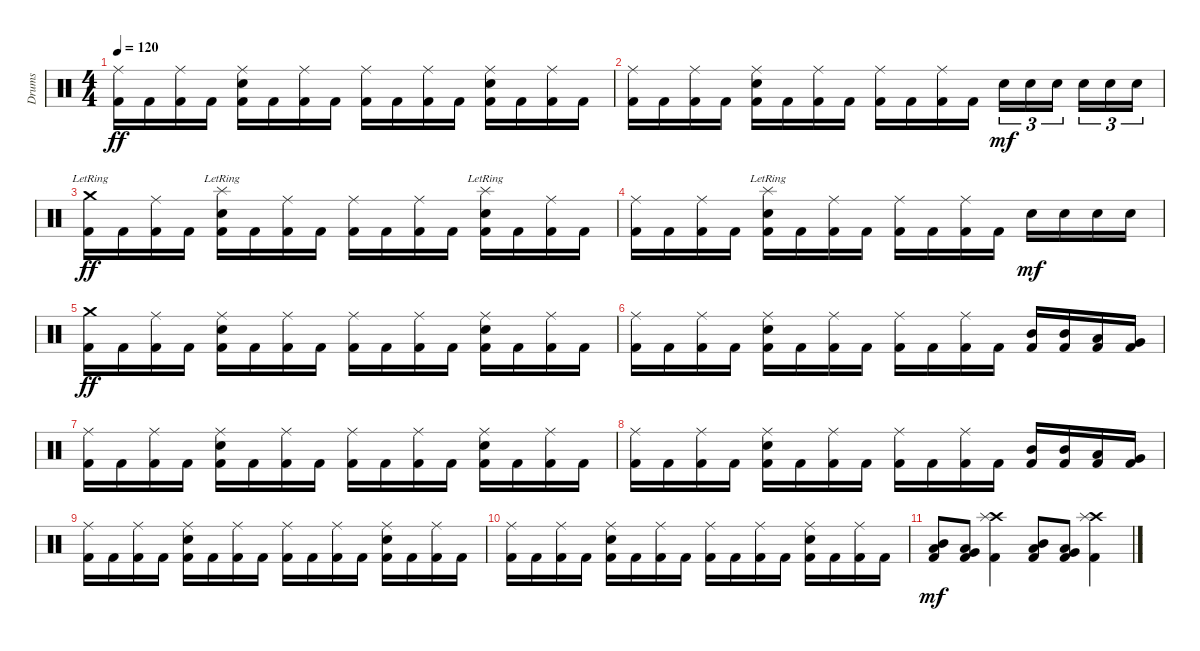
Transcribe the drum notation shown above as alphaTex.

\track ("Drums" "Drums") {instrument percussion}
\staff {score}
\articulation defaults
\ts (4 4)
\tempo 120
\clef neutral
\ks c
("Ride (middle)" "Kick (hit) 2").16{dy ff} "Kick (hit) 2".16 ("Ride (middle)" "Kick (hit) 2").16 "Kick (hit) 2".16 ("Ride (middle)" "Electric Snare (hit)" "Kick (hit) 2").16 "Kick (hit) 2".16 ("Ride (middle)" "Kick (hit) 2").16 "Kick (hit) 2".16 ("Ride (middle)" "Kick (hit) 2").16 "Kick (hit) 2".16 ("Ride (middle)" "Kick (hit) 2").16 "Kick (hit) 2".16 ("Ride (middle)" "Electric Snare (hit)" "Kick (hit) 2").16 "Kick (hit) 2".16 ("Ride (middle)" "Kick (hit) 2").16 "Kick (hit) 2".16 |
("Ride (middle)" "Kick (hit) 2").16 "Kick (hit) 2".16 ("Ride (middle)" "Kick (hit) 2").16 "Kick (hit) 2".16 ("Ride (middle)" "Electric Snare (hit)" "Kick (hit) 2").16 "Kick (hit) 2".16 ("Ride (middle)" "Kick (hit) 2").16 "Kick (hit) 2".16 ("Ride (middle)" "Kick (hit) 2").16 "Kick (hit) 2".16 ("Ride (middle)" "Kick (hit) 2").16 "Kick (hit) 2".16 "Electric Snare (hit)".16{tu (3 2) dy mf} "Electric Snare (hit)".16{tu (3 2)} "Electric Snare (hit)".16{tu (3 2)} "Electric Snare (hit)".16{tu (3 2)} "Electric Snare (hit)".16{tu (3 2)} "Electric Snare (hit)".16{tu (3 2)} |
("Crash medium (hit)"{lr} "Kick (hit) 2").16{dy ff} "Kick (hit) 2".16 ("Ride (middle)" "Kick (hit) 2").16 "Kick (hit) 2".16 ("Splash (hit)"{lr} "Electric Snare (hit)" "Kick (hit) 2").16 "Kick (hit) 2".16 ("Ride (middle)" "Kick (hit) 2").16 "Kick (hit) 2".16 ("Ride (middle)" "Kick (hit) 2").16 "Kick (hit) 2".16 ("Ride (middle)" "Kick (hit) 2").16 "Kick (hit) 2".16 ("Splash (hit)"{lr} "Electric Snare (hit)" "Kick (hit) 2").16 "Kick (hit) 2".16 ("Ride (middle)" "Kick (hit) 2").16 "Kick (hit) 2".16 |
("Ride (middle)" "Kick (hit) 2").16 "Kick (hit) 2".16 ("Ride (middle)" "Kick (hit) 2").16 "Kick (hit) 2".16 ("Splash (hit)"{lr} "Electric Snare (hit)" "Kick (hit) 2").16 "Kick (hit) 2".16 ("Ride (middle)" "Kick (hit) 2").16 "Kick (hit) 2".16 ("Ride (middle)" "Kick (hit) 2").16 "Kick (hit) 2".16 ("Ride (middle)" "Kick (hit) 2").16 "Kick (hit) 2".16 "Electric Snare (hit)".16{dy mf} "Electric Snare (hit)".16 "Electric Snare (hit)".16 "Electric Snare (hit)".16 |
("Crash medium (hit)" "Kick (hit) 2").16{dy ff} "Kick (hit) 2".16 ("Ride (middle)" "Kick (hit) 2").16 "Kick (hit) 2".16 ("Ride (middle)" "Electric Snare (hit)" "Kick (hit) 2").16 "Kick (hit) 2".16 ("Ride (middle)" "Kick (hit) 2").16 "Kick (hit) 2".16 ("Ride (middle)" "Kick (hit) 2").16 "Kick (hit) 2".16 ("Ride (middle)" "Kick (hit) 2").16 "Kick (hit) 2".16 ("Ride (middle)" "Electric Snare (hit)" "Kick (hit) 2").16 "Kick (hit) 2".16 ("Ride (middle)" "Kick (hit) 2").16 "Kick (hit) 2".16 |
("Ride (middle)" "Kick (hit) 2").16 "Kick (hit) 2".16 ("Ride (middle)" "Kick (hit) 2").16 "Kick (hit) 2".16 ("Ride (middle)" "Electric Snare (hit)" "Kick (hit) 2").16 "Kick (hit) 2".16 ("Ride (middle)" "Kick (hit) 2").16 "Kick (hit) 2".16 ("Ride (middle)" "Kick (hit) 2").16 "Kick (hit) 2".16 ("Ride (middle)" "Kick (hit) 2").16 "Kick (hit) 2".16 ("Mid Tom (hit)" "Kick (hit) 2").16 ("Mid Tom (hit)" "Kick (hit) 2").16 ("Low Tom (hit)" "Kick (hit) 2").16 ("Very Low Tom (hit)" "Kick (hit) 2").16 |
("Ride (middle)" "Kick (hit) 2").16 "Kick (hit) 2".16 ("Ride (middle)" "Kick (hit) 2").16 "Kick (hit) 2".16 ("Ride (middle)" "Electric Snare (hit)" "Kick (hit) 2").16 "Kick (hit) 2".16 ("Ride (middle)" "Kick (hit) 2").16 "Kick (hit) 2".16 ("Ride (middle)" "Kick (hit) 2").16 "Kick (hit) 2".16 ("Ride (middle)" "Kick (hit) 2").16 "Kick (hit) 2".16 ("Ride (middle)" "Electric Snare (hit)" "Kick (hit) 2").16 "Kick (hit) 2".16 ("Ride (middle)" "Kick (hit) 2").16 "Kick (hit) 2".16 |
("Ride (middle)" "Kick (hit) 2").16 "Kick (hit) 2".16 ("Ride (middle)" "Kick (hit) 2").16 "Kick (hit) 2".16 ("Ride (middle)" "Electric Snare (hit)" "Kick (hit) 2").16 "Kick (hit) 2".16 ("Ride (middle)" "Kick (hit) 2").16 "Kick (hit) 2".16 ("Ride (middle)" "Kick (hit) 2").16 "Kick (hit) 2".16 ("Ride (middle)" "Kick (hit) 2").16 "Kick (hit) 2".16 ("Mid Tom (hit)" "Kick (hit) 2").16 ("Mid Tom (hit)" "Kick (hit) 2").16 ("Low Tom (hit)" "Kick (hit) 2").16 ("Very Low Tom (hit)" "Kick (hit) 2").16 |
("Ride (middle)" "Kick (hit) 2").16 "Kick (hit) 2".16 ("Ride (middle)" "Kick (hit) 2").16 "Kick (hit) 2".16 ("Ride (middle)" "Electric Snare (hit)" "Kick (hit) 2").16 "Kick (hit) 2".16 ("Ride (middle)" "Kick (hit) 2").16 "Kick (hit) 2".16 ("Ride (middle)" "Kick (hit) 2").16 "Kick (hit) 2".16 ("Ride (middle)" "Kick (hit) 2").16 "Kick (hit) 2".16 ("Ride (middle)" "Electric Snare (hit)" "Kick (hit) 2").16 "Kick (hit) 2".16 ("Ride (middle)" "Kick (hit) 2").16 "Kick (hit) 2".16 |
("Ride (middle)" "Kick (hit) 2").16 "Kick (hit) 2".16 ("Ride (middle)" "Kick (hit) 2").16 "Kick (hit) 2".16 ("Ride (middle)" "Electric Snare (hit)" "Kick (hit) 2").16 "Kick (hit) 2".16 ("Ride (middle)" "Kick (hit) 2").16 "Kick (hit) 2".16 ("Ride (middle)" "Kick (hit) 2").16 "Kick (hit) 2".16 ("Ride (middle)" "Kick (hit) 2").16 "Kick (hit) 2".16 ("Ride (middle)" "Electric Snare (hit)" "Kick (hit) 2").16 "Kick (hit) 2".16 ("Ride (middle)" "Kick (hit) 2").16 "Kick (hit) 2".16 |
("Kick (hit) 2" "Mid Tom (hit)" "Low Tom (hit)").8{dy mf} ("Kick (hit) 2" "Very Low Tom (hit)" "Low Floor Tom (hit)").8 ("Kick (hit) 2" "Crash high (hit)" "Splash (hit)").4 ("Kick (hit) 2" "Mid Tom (hit)" "Low Tom (hit)").8 ("Kick (hit) 2" "Very Low Tom (hit)" "Low Floor Tom (hit)").8 ("Kick (hit) 2" "Crash high (hit)" "Splash (hit)").4
